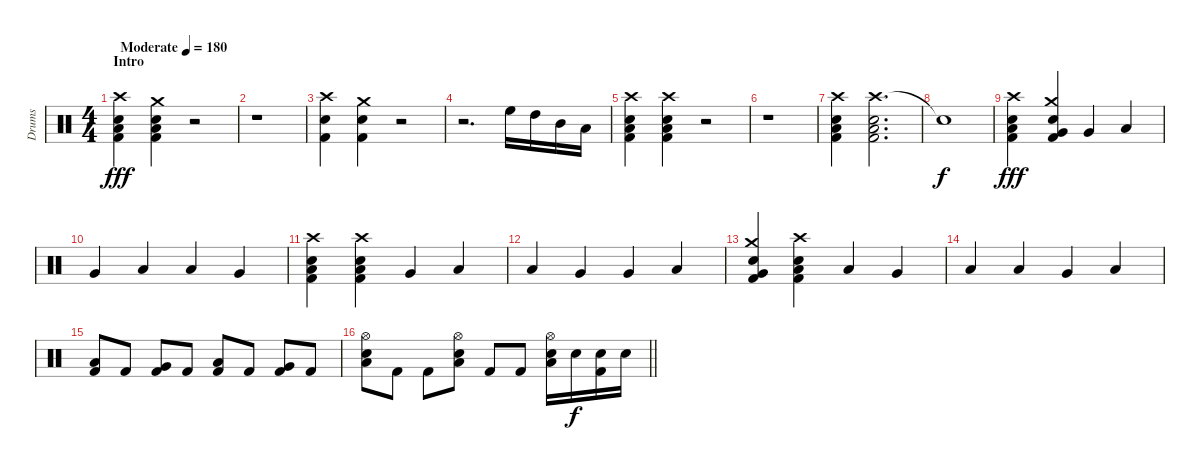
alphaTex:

\track ("Drums" "Drums") {instrument percussion}
\staff {score}
\articulation defaults
\ts (4 4)
\section ("" "Intro")
\tempo (180 "Moderate")
\clef neutral
\ks c
("Crash high (hit)" "Low Floor Tom (hit)" "Snare (hit) 2" "Kick (hit) 2").4{dy fff} ("Crash medium (hit)" "Low Floor Tom (hit)" "Snare (hit) 2" "Kick (hit) 2").4 r.2 |
r.1 |
("Crash high (hit)" "Snare (hit) 2" "Kick (hit) 2").4 ("Crash medium (hit)" "Snare (hit) 2" "Kick (hit) 2").4 r.2 |
r.2{d} "High Floor Tom (hit)".16 "High Tom (hit)".16 "Mid Tom (hit)".16 "Low Tom (hit)".16 |
("Crash high (hit)" "Low Floor Tom (hit)" "Snare (hit) 2" "Kick (hit) 2").4 ("Crash high (hit)" "Low Floor Tom (hit)" "Snare (hit) 2" "Kick (hit) 2").4 r.2 |
r.1 |
("Crash high (hit)" "Low Floor Tom (hit)" "Snare (hit) 2" "Kick (hit) 2").4 ("Crash high (hit)" "Low Floor Tom (hit)" "Snare (hit) 2" "Kick (hit) 2").2{d} |
"Snare (hit)"{t}.1{dy f} |
("Crash high (hit)" "Low Tom (hit)" "Snare (hit) 2" "Kick (hit) 2").4{dy fff} ("Crash medium (hit)" "Very Low Tom (hit)" "Snare (hit) 2" "Kick (hit) 2").4 "Very Low Tom (hit)".4 "Low Tom (hit)".4 |
"Very Low Tom (hit)".4 "Low Floor Tom (hit)".4 "Low Tom (hit)".4 "Very Low Tom (hit)".4 |
("Crash high (hit)" "Low Floor Tom (hit)" "Snare (hit) 2" "Kick (hit) 2").4 ("Crash high (hit)" "Low Tom (hit)" "Snare (hit) 2" "Kick (hit) 2").4 "Very Low Tom (hit)".4 "Low Floor Tom (hit)".4 |
"Low Tom (hit)".4 "Very Low Tom (hit)".4 "Very Low Tom (hit)".4 "Low Tom (hit)".4 |
("Crash medium (hit)" "Very Low Tom (hit)" "Snare (hit) 2" "Kick (hit) 2").4 ("Crash high (hit)" "Low Floor Tom (hit)" "Snare (hit) 2" "Kick (hit) 2").4 "Low Tom (hit)".4 "Very Low Tom (hit)".4 |
"Low Floor Tom (hit)".4 "Low Tom (hit)".4 "Very Low Tom (hit)".4 "Low Floor Tom (hit)".4 |
("Low Tom (hit)" "Kick (hit) 2").8 "Kick (hit) 2".8 ("Very Low Tom (hit)" "Kick (hit) 2").8 "Kick (hit) 2".8 ("Low Floor Tom (hit)" "Kick (hit) 2").8 "Kick (hit) 2".8 ("Very Low Tom (hit)" "Kick (hit) 2").8 "Kick (hit) 2".8 |
\barLineRight lightlight
("Hi-Hat (open)" "Low Floor Tom (hit)" "Snare (hit) 2").8 "Kick (hit) 2".8 "Kick (hit) 2".8 ("Hi-Hat (open)" "Low Floor Tom (hit)" "Snare (hit) 2").8 "Kick (hit) 2".8 "Kick (hit) 2".8 ("Hi-Hat (open)" "Low Floor Tom (hit)" "Snare (hit) 2").16 "Snare (hit) 2".16{dy f} ("Snare (hit) 2" "Kick (hit) 2").16 "Snare (hit) 2".16
